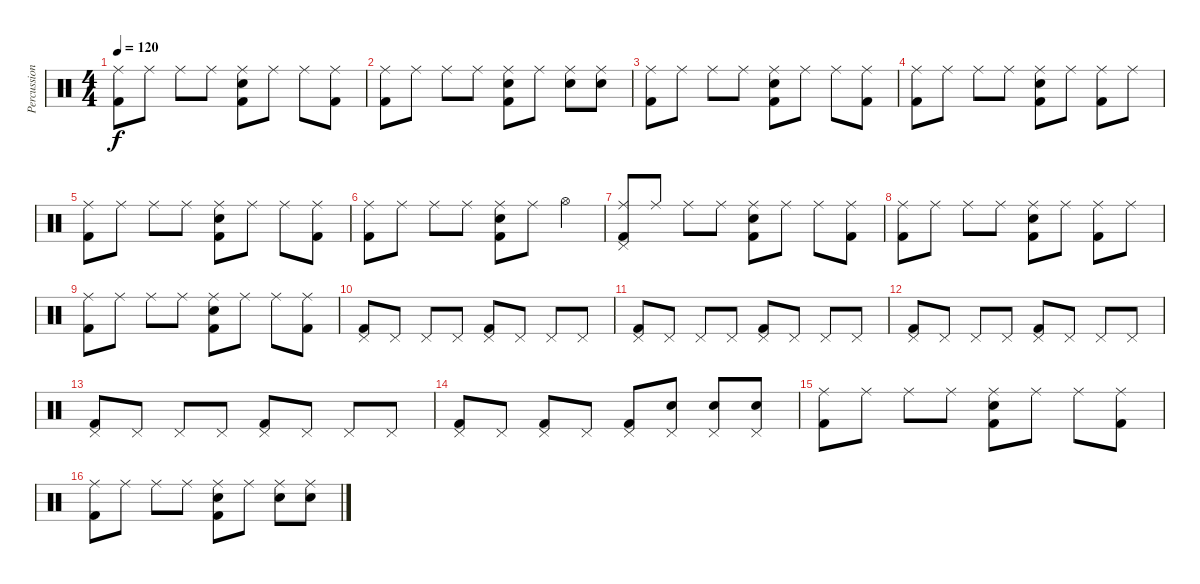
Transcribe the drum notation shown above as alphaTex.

\track ("Percussion" "Percussion") {instrument percussion}
\staff {score}
\articulation defaults
\ts (4 4)
\tempo 120
\clef neutral
\ks c
("Ride (middle)" "Kick (hit) 2").8{dy f} "Ride (middle)".8 "Ride (middle)".8 "Ride (middle)".8 ("Ride (middle)" "Snare (hit) 2" "Kick (hit) 2").8 "Ride (middle)".8 "Ride (middle)".8 ("Ride (middle)" "Kick (hit) 2").8 |
("Ride (middle)" "Kick (hit) 2").8 "Ride (middle)".8 "Ride (middle)".8 "Ride (middle)".8 ("Ride (middle)" "Snare (hit) 2" "Kick (hit) 2").8 "Ride (middle)".8 ("Ride (middle)" "Snare (hit) 2").8 ("Ride (middle)" "Snare (hit) 2").8 |
("Ride (middle)" "Kick (hit) 2").8 "Ride (middle)".8 "Ride (middle)".8 "Ride (middle)".8 ("Ride (middle)" "Snare (hit) 2" "Kick (hit) 2").8 "Ride (middle)".8 "Ride (middle)".8 ("Ride (middle)" "Kick (hit) 2").8 |
("Ride (middle)" "Kick (hit) 2").8 "Ride (middle)".8 "Ride (middle)".8 "Ride (middle)".8 ("Ride (middle)" "Snare (hit) 2" "Kick (hit) 2").8 "Ride (middle)".8 ("Ride (middle)" "Kick (hit) 2").8 "Ride (middle)".8 |
("Ride (middle)" "Kick (hit) 2").8 "Ride (middle)".8 "Ride (middle)".8 "Ride (middle)".8 ("Ride (middle)" "Snare (hit) 2" "Kick (hit) 2").8 "Ride (middle)".8 "Ride (middle)".8 ("Ride (middle)" "Kick (hit) 2").8 |
("Ride (middle)" "Kick (hit) 2").8 "Ride (middle)".8 "Ride (middle)".8 "Ride (middle)".8 ("Ride (middle)" "Snare (hit) 2" "Kick (hit) 2").8 "Ride (middle)".8 "Hi-Hat (open)".4 |
("Ride (middle)" "Pedal Hi-Hat (hit)" "Kick (hit) 2").8 "Ride (middle)".8 "Ride (middle)".8 "Ride (middle)".8 ("Ride (middle)" "Snare (hit) 2" "Kick (hit) 2").8 "Ride (middle)".8 "Ride (middle)".8 ("Ride (middle)" "Kick (hit) 2").8 |
("Ride (middle)" "Kick (hit) 2").8 "Ride (middle)".8 "Ride (middle)".8 "Ride (middle)".8 ("Ride (middle)" "Snare (hit) 2" "Kick (hit) 2").8 "Ride (middle)".8 ("Ride (middle)" "Kick (hit) 2").8 "Ride (middle)".8 |
("Ride (middle)" "Kick (hit) 2").8 "Ride (middle)".8 "Ride (middle)".8 "Ride (middle)".8 ("Ride (middle)" "Snare (hit) 2" "Kick (hit) 2").8 "Ride (middle)".8 "Ride (middle)".8 ("Ride (middle)" "Kick (hit) 2").8 |
("Pedal Hi-Hat (hit)" "Kick (hit) 2").8 "Pedal Hi-Hat (hit)".8 "Pedal Hi-Hat (hit)".8 "Pedal Hi-Hat (hit)".8 ("Pedal Hi-Hat (hit)" "Kick (hit) 2").8 "Pedal Hi-Hat (hit)".8 "Pedal Hi-Hat (hit)".8 "Pedal Hi-Hat (hit)".8 |
("Pedal Hi-Hat (hit)" "Kick (hit) 2").8 "Pedal Hi-Hat (hit)".8 "Pedal Hi-Hat (hit)".8 "Pedal Hi-Hat (hit)".8 ("Pedal Hi-Hat (hit)" "Kick (hit) 2").8 "Pedal Hi-Hat (hit)".8 "Pedal Hi-Hat (hit)".8 "Pedal Hi-Hat (hit)".8 |
("Pedal Hi-Hat (hit)" "Kick (hit) 2").8 "Pedal Hi-Hat (hit)".8 "Pedal Hi-Hat (hit)".8 "Pedal Hi-Hat (hit)".8 ("Pedal Hi-Hat (hit)" "Kick (hit) 2").8 "Pedal Hi-Hat (hit)".8 "Pedal Hi-Hat (hit)".8 "Pedal Hi-Hat (hit)".8 |
("Pedal Hi-Hat (hit)" "Kick (hit) 2").8 "Pedal Hi-Hat (hit)".8 "Pedal Hi-Hat (hit)".8 "Pedal Hi-Hat (hit)".8 ("Pedal Hi-Hat (hit)" "Kick (hit) 2").8 "Pedal Hi-Hat (hit)".8 "Pedal Hi-Hat (hit)".8 "Pedal Hi-Hat (hit)".8 |
("Pedal Hi-Hat (hit)" "Kick (hit) 2").8 "Pedal Hi-Hat (hit)".8 ("Pedal Hi-Hat (hit)" "Kick (hit) 2").8 "Pedal Hi-Hat (hit)".8 ("Pedal Hi-Hat (hit)" "Kick (hit) 2").8 ("Pedal Hi-Hat (hit)" "Snare (hit) 2").8 ("Pedal Hi-Hat (hit)" "Snare (hit) 2").8 ("Pedal Hi-Hat (hit)" "Snare (hit) 2").8 |
("Ride (middle)" "Kick (hit) 2").8 "Ride (middle)".8 "Ride (middle)".8 "Ride (middle)".8 ("Ride (middle)" "Snare (hit) 2" "Kick (hit) 2").8 "Ride (middle)".8 "Ride (middle)".8 ("Ride (middle)" "Kick (hit) 2").8 |
("Ride (middle)" "Kick (hit) 2").8 "Ride (middle)".8 "Ride (middle)".8 "Ride (middle)".8 ("Ride (middle)" "Snare (hit) 2" "Kick (hit) 2").8 "Ride (middle)".8 ("Ride (middle)" "Snare (hit) 2").8 ("Ride (middle)" "Snare (hit) 2").8
